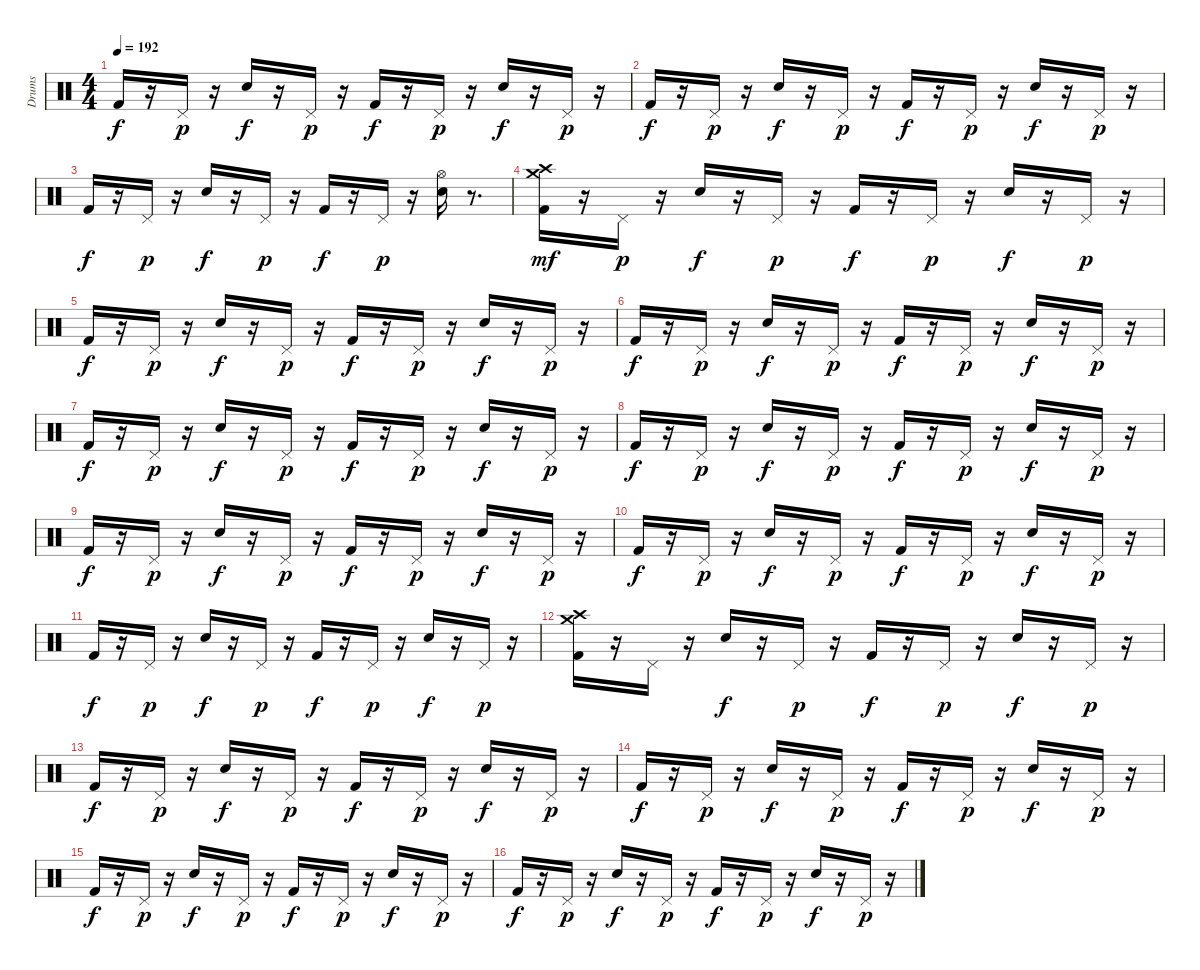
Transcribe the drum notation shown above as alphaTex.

\track ("Drums" "Drums") {instrument percussion}
\staff {score}
\articulation defaults
\ts (4 4)
\tempo 192
\clef neutral
\ks c "Kick (hit) 2".16{dy f}
r.16 "Pedal Hi-Hat (hit)".16{dy p} r.16 "Electric Snare (hit)".16{dy f} r.16 "Pedal Hi-Hat (hit)".16{dy p} r.16 "Kick (hit) 2".16{dy f} r.16 "Pedal Hi-Hat (hit)".16{dy p} r.16 "Electric Snare (hit)".16{dy f} r.16 "Pedal Hi-Hat (hit)".16{dy p} r.16 |
"Kick (hit) 2".16{dy f} r.16 "Pedal Hi-Hat (hit)".16{dy p} r.16 "Electric Snare (hit)".16{dy f} r.16 "Pedal Hi-Hat (hit)".16{dy p} r.16 "Kick (hit) 2".16{dy f} r.16 "Pedal Hi-Hat (hit)".16{dy p} r.16 "Electric Snare (hit)".16{dy f} r.16 "Pedal Hi-Hat (hit)".16{dy p} r.16 |
"Kick (hit) 2".16{dy f} r.16 "Pedal Hi-Hat (hit)".16{dy p} r.16 "Electric Snare (hit)".16{dy f} r.16 "Pedal Hi-Hat (hit)".16{dy p} r.16 "Kick (hit) 2".16{dy f} r.16 "Pedal Hi-Hat (hit)".16{dy p} r.16 ("Hi-Hat (open)" "Electric Snare (hit)").16 r.8{d} |
("Crash high (hit)" "Crash medium (hit)" "Kick (hit) 2").16{dy mf} r.16 "Pedal Hi-Hat (hit)".16{dy p} r.16 "Electric Snare (hit)".16{dy f} r.16 "Pedal Hi-Hat (hit)".16{dy p} r.16 "Kick (hit) 2".16{dy f} r.16 "Pedal Hi-Hat (hit)".16{dy p} r.16 "Electric Snare (hit)".16{dy f} r.16 "Pedal Hi-Hat (hit)".16{dy p} r.16 |
"Kick (hit) 2".16{dy f} r.16 "Pedal Hi-Hat (hit)".16{dy p} r.16 "Electric Snare (hit)".16{dy f} r.16 "Pedal Hi-Hat (hit)".16{dy p} r.16 "Kick (hit) 2".16{dy f} r.16 "Pedal Hi-Hat (hit)".16{dy p} r.16 "Electric Snare (hit)".16{dy f} r.16 "Pedal Hi-Hat (hit)".16{dy p} r.16 |
"Kick (hit) 2".16{dy f} r.16 "Pedal Hi-Hat (hit)".16{dy p} r.16 "Electric Snare (hit)".16{dy f} r.16 "Pedal Hi-Hat (hit)".16{dy p} r.16 "Kick (hit) 2".16{dy f} r.16 "Pedal Hi-Hat (hit)".16{dy p} r.16 "Electric Snare (hit)".16{dy f} r.16 "Pedal Hi-Hat (hit)".16{dy p} r.16 |
"Kick (hit) 2".16{dy f} r.16 "Pedal Hi-Hat (hit)".16{dy p} r.16 "Electric Snare (hit)".16{dy f} r.16 "Pedal Hi-Hat (hit)".16{dy p} r.16 "Kick (hit) 2".16{dy f} r.16 "Pedal Hi-Hat (hit)".16{dy p} r.16 "Electric Snare (hit)".16{dy f} r.16 "Pedal Hi-Hat (hit)".16{dy p} r.16 |
"Kick (hit) 2".16{dy f} r.16 "Pedal Hi-Hat (hit)".16{dy p} r.16 "Electric Snare (hit)".16{dy f} r.16 "Pedal Hi-Hat (hit)".16{dy p} r.16 "Kick (hit) 2".16{dy f} r.16 "Pedal Hi-Hat (hit)".16{dy p} r.16 "Electric Snare (hit)".16{dy f} r.16 "Pedal Hi-Hat (hit)".16{dy p} r.16 |
"Kick (hit) 2".16{dy f} r.16 "Pedal Hi-Hat (hit)".16{dy p} r.16 "Electric Snare (hit)".16{dy f} r.16 "Pedal Hi-Hat (hit)".16{dy p} r.16 "Kick (hit) 2".16{dy f} r.16 "Pedal Hi-Hat (hit)".16{dy p} r.16 "Electric Snare (hit)".16{dy f} r.16 "Pedal Hi-Hat (hit)".16{dy p} r.16 |
"Kick (hit) 2".16{dy f} r.16 "Pedal Hi-Hat (hit)".16{dy p} r.16 "Electric Snare (hit)".16{dy f} r.16 "Pedal Hi-Hat (hit)".16{dy p} r.16 "Kick (hit) 2".16{dy f} r.16 "Pedal Hi-Hat (hit)".16{dy p} r.16 "Electric Snare (hit)".16{dy f} r.16 "Pedal Hi-Hat (hit)".16{dy p} r.16 |
"Kick (hit) 2".16{dy f} r.16 "Pedal Hi-Hat (hit)".16{dy p} r.16 "Electric Snare (hit)".16{dy f} r.16 "Pedal Hi-Hat (hit)".16{dy p} r.16 "Kick (hit) 2".16{dy f} r.16 "Pedal Hi-Hat (hit)".16{dy p} r.16 "Electric Snare (hit)".16{dy f} r.16 "Pedal Hi-Hat (hit)".16{dy p} r.16 |
("Crash high (hit)" "Crash medium (hit)" "Kick (hit) 2").16 r.16 "Pedal Hi-Hat (hit)".16 r.16 "Electric Snare (hit)".16{dy f} r.16 "Pedal Hi-Hat (hit)".16{dy p} r.16 "Kick (hit) 2".16{dy f} r.16 "Pedal Hi-Hat (hit)".16{dy p} r.16 "Electric Snare (hit)".16{dy f} r.16 "Pedal Hi-Hat (hit)".16{dy p} r.16 |
"Kick (hit) 2".16{dy f} r.16 "Pedal Hi-Hat (hit)".16{dy p} r.16 "Electric Snare (hit)".16{dy f} r.16 "Pedal Hi-Hat (hit)".16{dy p} r.16 "Kick (hit) 2".16{dy f} r.16 "Pedal Hi-Hat (hit)".16{dy p} r.16 "Electric Snare (hit)".16{dy f} r.16 "Pedal Hi-Hat (hit)".16{dy p} r.16 |
"Kick (hit) 2".16{dy f} r.16 "Pedal Hi-Hat (hit)".16{dy p} r.16 "Electric Snare (hit)".16{dy f} r.16 "Pedal Hi-Hat (hit)".16{dy p} r.16 "Kick (hit) 2".16{dy f} r.16 "Pedal Hi-Hat (hit)".16{dy p} r.16 "Electric Snare (hit)".16{dy f} r.16 "Pedal Hi-Hat (hit)".16{dy p} r.16 |
"Kick (hit) 2".16{dy f} r.16 "Pedal Hi-Hat (hit)".16{dy p} r.16 "Electric Snare (hit)".16{dy f} r.16 "Pedal Hi-Hat (hit)".16{dy p} r.16 "Kick (hit) 2".16{dy f} r.16 "Pedal Hi-Hat (hit)".16{dy p} r.16 "Electric Snare (hit)".16{dy f} r.16 "Pedal Hi-Hat (hit)".16{dy p} r.16 |
"Kick (hit) 2".16{dy f} r.16 "Pedal Hi-Hat (hit)".16{dy p} r.16 "Electric Snare (hit)".16{dy f} r.16 "Pedal Hi-Hat (hit)".16{dy p} r.16 "Kick (hit) 2".16{dy f} r.16 "Pedal Hi-Hat (hit)".16{dy p} r.16 "Electric Snare (hit)".16{dy f} r.16 "Pedal Hi-Hat (hit)".16{dy p} r.16
